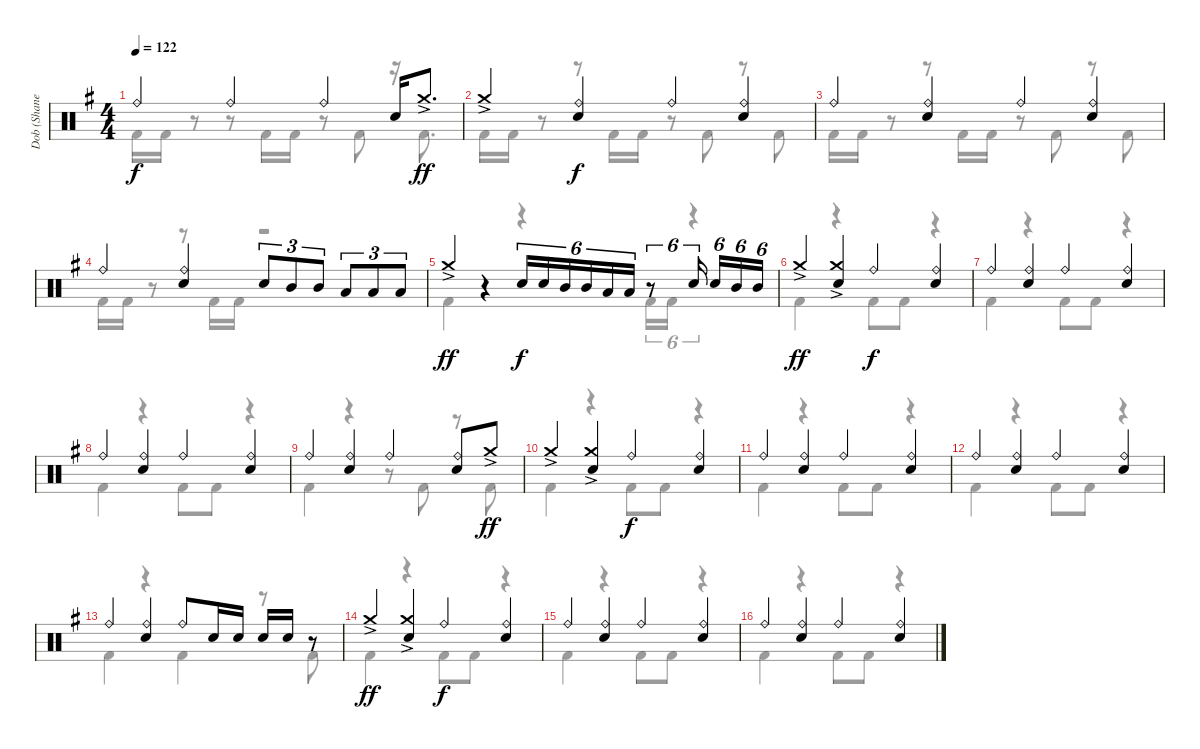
\track ("Dob (Shane Gaalaas)" "Dob (Shane") {instrument percussion}
\staff {score}
\articulation defaults
\voice
\ts (4 4)
\tempo 122
\clef neutral
\ks g "Ride (bell)".4{dy f} "Ride (bell)".4 "Ride (bell)".4 "Electric Snare (hit)".16 "Crash medium (hit)"{ac}.8{d dy ff}
|
"Crash medium (hit)"{ac}.4 ("Ride (bell)" "Electric Snare (hit)").4{dy f} "Ride (bell)".4 ("Ride (bell)" "Electric Snare (hit)").4 |
"Ride (bell)".4 ("Ride (bell)" "Electric Snare (hit)").4 "Ride (bell)".4 ("Ride (bell)" "Electric Snare (hit)").4 |
"Ride (bell)".4 ("Ride (bell)" "Electric Snare (hit)").4 "Electric Snare (hit)".8{tu (3 2)} "Mid Tom (hit)".8{tu (3 2)} "Mid Tom (hit)".8{tu (3 2)} "Low Tom (hit)".8{tu (3 2)} "Low Tom (hit)".8{tu (3 2)} "Low Tom (hit)".8{tu (3 2)} |
"Crash medium (hit)"{ac}.4{dy ff} r.4 "Electric Snare (hit)".16{tu (6 4) dy f} "Electric Snare (hit)".16{tu (6 4)} "Mid Tom (hit)".16{tu (6 4)} "Mid Tom (hit)".16{tu (6 4)} "Low Tom (hit)".16{tu (6 4)} "Low Tom (hit)".16{tu (6 4)} r.8{tu (6 4)} "Electric Snare (hit)".16{tu (6 4)} "Electric Snare (hit)".16{tu (6 4)} "Mid Tom (hit)".16{tu (6 4)} "Mid Tom (hit)".16{tu (6 4)} |
"Crash medium (hit)"{ac}.4{dy ff} ("Crash medium (hit)"{ac} "Electric Snare (hit)").4 "Ride (bell)".4{dy f} ("Ride (bell)" "Electric Snare (hit)").4 |
"Ride (bell)".4 ("Ride (bell)" "Electric Snare (hit)").4 "Ride (bell)".4 ("Ride (bell)" "Electric Snare (hit)").4 |
"Ride (bell)".4 ("Ride (bell)" "Electric Snare (hit)").4 "Ride (bell)".4 ("Ride (bell)" "Electric Snare (hit)").4 |
"Ride (bell)".4 ("Ride (bell)" "Electric Snare (hit)").4 "Ride (bell)".4 ("Ride (bell)" "Electric Snare (hit)").8 "Crash medium (hit)"{ac}.8{dy ff} |
"Crash medium (hit)"{ac}.4 ("Crash medium (hit)"{ac} "Electric Snare (hit)").4 "Ride (bell)".4{dy f} ("Ride (bell)" "Electric Snare (hit)").4 |
"Ride (bell)".4 ("Ride (bell)" "Electric Snare (hit)").4 "Ride (bell)".4 ("Ride (bell)" "Electric Snare (hit)").4 |
"Ride (bell)".4 ("Ride (bell)" "Electric Snare (hit)").4 "Ride (bell)".4 ("Ride (bell)" "Electric Snare (hit)").4 |
"Ride (bell)".4 ("Ride (bell)" "Electric Snare (hit)").4 "Ride (bell)".8 "Electric Snare (hit)".16 "Electric Snare (hit)".16 "Electric Snare (hit)".16 "Electric Snare (hit)".16 r.8 |
"Crash medium (hit)"{ac}.4{dy ff} ("Crash medium (hit)"{ac} "Electric Snare (hit)").4 "Ride (bell)".4{dy f} ("Ride (bell)" "Electric Snare (hit)").4 |
"Ride (bell)".4 ("Ride (bell)" "Electric Snare (hit)").4 "Ride (bell)".4 ("Ride (bell)" "Electric Snare (hit)").4 |
"Ride (bell)".4 ("Ride (bell)" "Electric Snare (hit)").4 "Ride (bell)".4 ("Ride (bell)" "Electric Snare (hit)").4
\voice
\clef neutral
\ottava regular
\simile none
\ks g "Kick (hit) 2".16{dy f} "Kick (hit) 2".16
r.8 r.8 "Kick (hit) 2".16 "Kick (hit) 2".16 r.8 "Kick (hit) 2".8 r.16 "Kick (hit) 2".8{d} |
"Kick (hit) 2".16 "Kick (hit) 2".16 r.8 r.8 "Kick (hit) 2".16 "Kick (hit) 2".16 r.8 "Kick (hit) 2".8 r.8 "Kick (hit) 2".8 |
"Kick (hit) 2".16 "Kick (hit) 2".16 r.8 r.8 "Kick (hit) 2".16 "Kick (hit) 2".16 r.8 "Kick (hit) 2".8 r.8 "Kick (hit) 2".8 |
"Kick (hit) 2".16 "Kick (hit) 2".16 r.8 r.8 "Kick (hit) 2".16 "Kick (hit) 2".16 r.2 |
"Kick (hit) 2".4 r.4 r.4 "Kick (hit) 2".16{tu (6 4)} "Kick (hit) 2".16{tu (6 4)} r.4{tu (6 4)} |
"Kick (hit) 2".4 r.4 "Kick (hit) 2".8 "Kick (hit) 2".8 r.4 |
"Kick (hit) 2".4 r.4 "Kick (hit) 2".8 "Kick (hit) 2".8 r.4 |
"Kick (hit) 2".4 r.4 "Kick (hit) 2".8 "Kick (hit) 2".8 r.4 |
"Kick (hit) 2".4 r.4 r.8 "Kick (hit) 2".8 r.8 "Kick (hit) 2".8 |
"Kick (hit) 2".4 r.4 "Kick (hit) 2".8 "Kick (hit) 2".8 r.4 |
"Kick (hit) 2".4 r.4 "Kick (hit) 2".8 "Kick (hit) 2".8 r.4 |
"Kick (hit) 2".4 r.4 "Kick (hit) 2".8 "Kick (hit) 2".8 r.4 |
"Kick (hit) 2".4 r.4 "Kick (hit) 2".4 r.8 "Kick (hit) 2".8 |
"Kick (hit) 2".4 r.4 "Kick (hit) 2".8 "Kick (hit) 2".8 r.4 |
"Kick (hit) 2".4 r.4 "Kick (hit) 2".8 "Kick (hit) 2".8 r.4 |
"Kick (hit) 2".4 r.4 "Kick (hit) 2".8 "Kick (hit) 2".8 r.4
